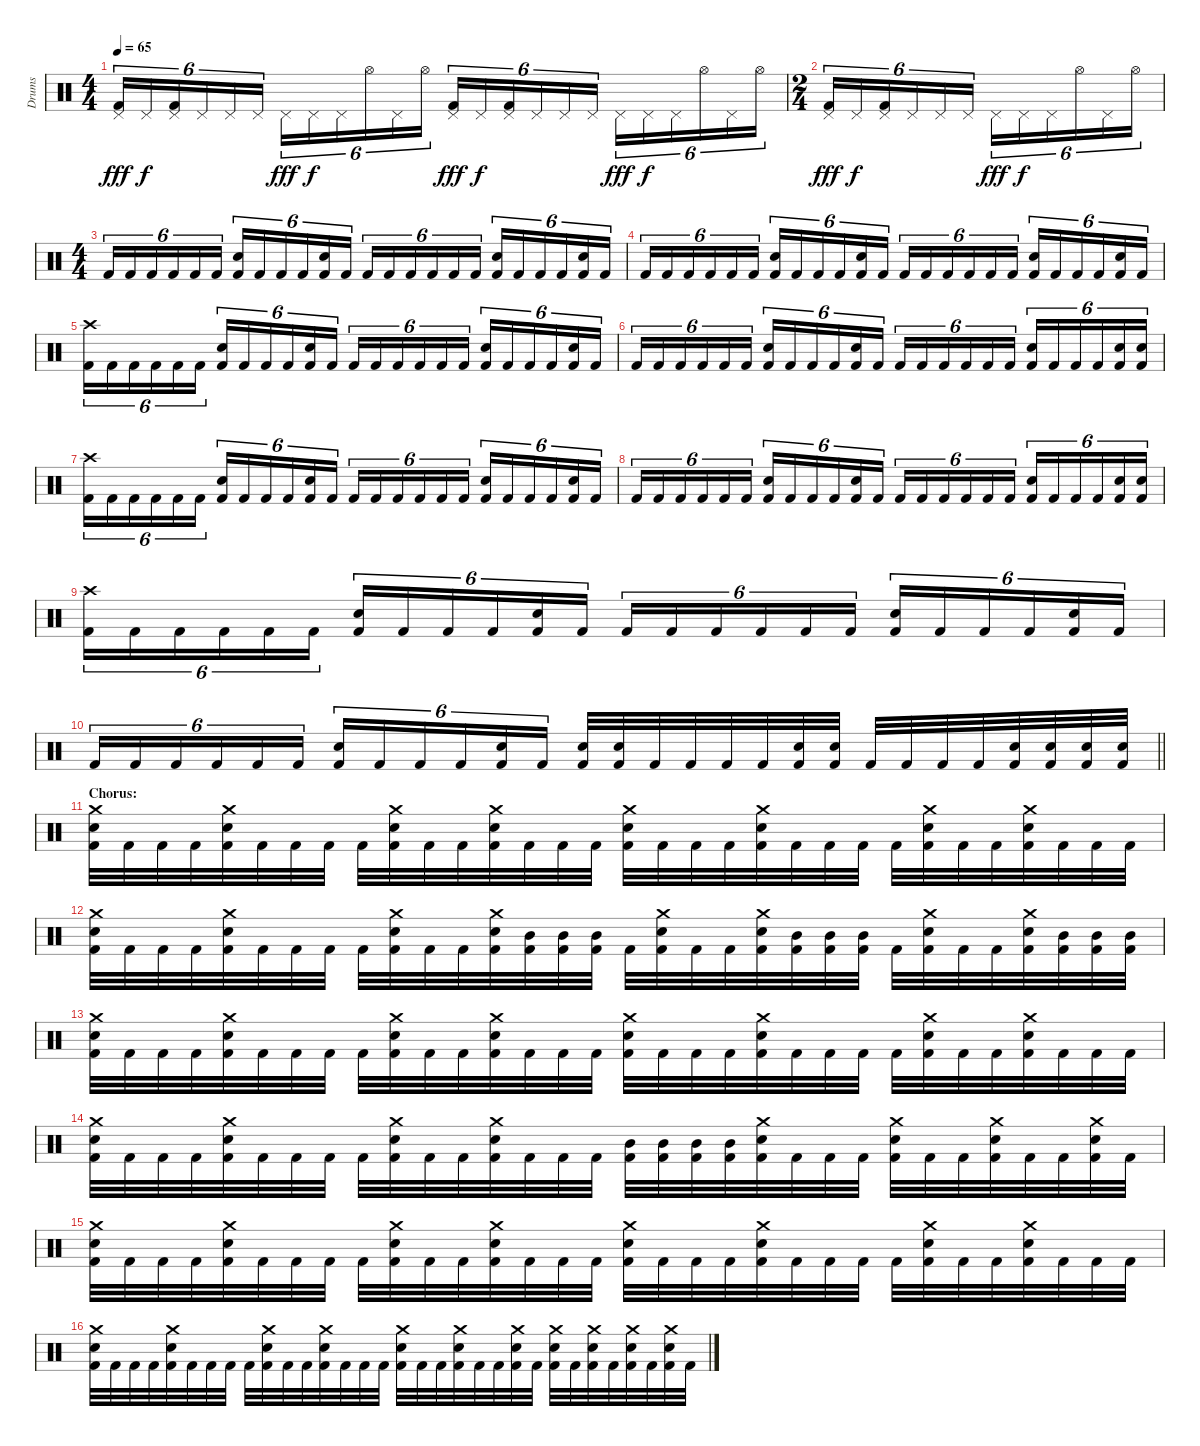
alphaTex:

\track ("Drums" "Drums") {instrument percussion}
\staff {score}
\articulation defaults
\ts (4 4)
\tempo 65
\clef neutral
\ks c
("Pedal Hi-Hat (hit)" "Kick (hit) 2").16{tu (6 4) dy fff} "Pedal Hi-Hat (hit)".16{tu (6 4) dy f} ("Pedal Hi-Hat (hit)" "Kick (hit) 2").16{tu (6 4)} "Pedal Hi-Hat (hit)".16{tu (6 4)} "Pedal Hi-Hat (hit)".16{tu (6 4)} "Pedal Hi-Hat (hit)".16{tu (6 4)} "Pedal Hi-Hat (hit)".16{tu (6 4) dy fff} "Pedal Hi-Hat (hit)".16{tu (6 4) dy f} "Pedal Hi-Hat (hit)".16{tu (6 4)} "Hi-Hat (open)".16{tu (6 4)} "Pedal Hi-Hat (hit)".16{tu (6 4)} "Hi-Hat (open)".16{tu (6 4)} ("Pedal Hi-Hat (hit)" "Kick (hit) 2").16{tu (6 4) dy fff} "Pedal Hi-Hat (hit)".16{tu (6 4) dy f} ("Pedal Hi-Hat (hit)" "Kick (hit) 2").16{tu (6 4)} "Pedal Hi-Hat (hit)".16{tu (6 4)} "Pedal Hi-Hat (hit)".16{tu (6 4)} "Pedal Hi-Hat (hit)".16{tu (6 4)} "Pedal Hi-Hat (hit)".16{tu (6 4) dy fff} "Pedal Hi-Hat (hit)".16{tu (6 4) dy f} "Pedal Hi-Hat (hit)".16{tu (6 4)} "Hi-Hat (open)".16{tu (6 4)} "Pedal Hi-Hat (hit)".16{tu (6 4)} "Hi-Hat (open)".16{tu (6 4)} |
\ts (2 4)
("Pedal Hi-Hat (hit)" "Kick (hit) 2").16{tu (6 4) dy fff} "Pedal Hi-Hat (hit)".16{tu (6 4) dy f} ("Pedal Hi-Hat (hit)" "Kick (hit) 2").16{tu (6 4)} "Pedal Hi-Hat (hit)".16{tu (6 4)} "Pedal Hi-Hat (hit)".16{tu (6 4)} "Pedal Hi-Hat (hit)".16{tu (6 4)} "Pedal Hi-Hat (hit)".16{tu (6 4) dy fff} "Pedal Hi-Hat (hit)".16{tu (6 4) dy f} "Pedal Hi-Hat (hit)".16{tu (6 4)} "Hi-Hat (open)".16{tu (6 4)} "Pedal Hi-Hat (hit)".16{tu (6 4)} "Hi-Hat (open)".16{tu (6 4)} |
\ts (4 4)
"Kick (hit) 2".16{tu (6 4)} "Kick (hit) 2".16{tu (6 4)} "Kick (hit) 2".16{tu (6 4)} "Kick (hit) 2".16{tu (6 4)} "Kick (hit) 2".16{tu (6 4)} "Kick (hit) 2".16{tu (6 4)} ("Snare (hit) 2" "Kick (hit) 2").16{tu (6 4)} "Kick (hit) 2".16{tu (6 4)} "Kick (hit) 2".16{tu (6 4)} "Kick (hit) 2".16{tu (6 4)} ("Snare (hit) 2" "Kick (hit) 2").16{tu (6 4)} "Kick (hit) 2".16{tu (6 4)} "Kick (hit) 2".16{tu (6 4)} "Kick (hit) 2".16{tu (6 4)} "Kick (hit) 2".16{tu (6 4)} "Kick (hit) 2".16{tu (6 4)} "Kick (hit) 2".16{tu (6 4)} "Kick (hit) 2".16{tu (6 4)} ("Snare (hit) 2" "Kick (hit) 2").16{tu (6 4)} "Kick (hit) 2".16{tu (6 4)} "Kick (hit) 2".16{tu (6 4)} "Kick (hit) 2".16{tu (6 4)} ("Snare (hit) 2" "Kick (hit) 2").16{tu (6 4)} "Kick (hit) 2".16{tu (6 4)} |
"Kick (hit) 2".16{tu (6 4)} "Kick (hit) 2".16{tu (6 4)} "Kick (hit) 2".16{tu (6 4)} "Kick (hit) 2".16{tu (6 4)} "Kick (hit) 2".16{tu (6 4)} "Kick (hit) 2".16{tu (6 4)} ("Snare (hit) 2" "Kick (hit) 2").16{tu (6 4)} "Kick (hit) 2".16{tu (6 4)} "Kick (hit) 2".16{tu (6 4)} "Kick (hit) 2".16{tu (6 4)} ("Snare (hit) 2" "Kick (hit) 2").16{tu (6 4)} "Kick (hit) 2".16{tu (6 4)} "Kick (hit) 2".16{tu (6 4)} "Kick (hit) 2".16{tu (6 4)} "Kick (hit) 2".16{tu (6 4)} "Kick (hit) 2".16{tu (6 4)} "Kick (hit) 2".16{tu (6 4)} "Kick (hit) 2".16{tu (6 4)} ("Snare (hit) 2" "Kick (hit) 2").16{tu (6 4)} "Kick (hit) 2".16{tu (6 4)} "Kick (hit) 2".16{tu (6 4)} "Kick (hit) 2".16{tu (6 4)} ("Snare (hit) 2" "Kick (hit) 2").16{tu (6 4)} "Kick (hit) 2".16{tu (6 4)} |
("Crash high (hit)" "Kick (hit) 2").16{tu (6 4)} "Kick (hit) 2".16{tu (6 4)} "Kick (hit) 2".16{tu (6 4)} "Kick (hit) 2".16{tu (6 4)} "Kick (hit) 2".16{tu (6 4)} "Kick (hit) 2".16{tu (6 4)} ("Snare (hit) 2" "Kick (hit) 2").16{tu (6 4)} "Kick (hit) 2".16{tu (6 4)} "Kick (hit) 2".16{tu (6 4)} "Kick (hit) 2".16{tu (6 4)} ("Snare (hit) 2" "Kick (hit) 2").16{tu (6 4)} "Kick (hit) 2".16{tu (6 4)} "Kick (hit) 2".16{tu (6 4)} "Kick (hit) 2".16{tu (6 4)} "Kick (hit) 2".16{tu (6 4)} "Kick (hit) 2".16{tu (6 4)} "Kick (hit) 2".16{tu (6 4)} "Kick (hit) 2".16{tu (6 4)} ("Snare (hit) 2" "Kick (hit) 2").16{tu (6 4)} "Kick (hit) 2".16{tu (6 4)} "Kick (hit) 2".16{tu (6 4)} "Kick (hit) 2".16{tu (6 4)} ("Snare (hit) 2" "Kick (hit) 2").16{tu (6 4)} "Kick (hit) 2".16{tu (6 4)} |
"Kick (hit) 2".16{tu (6 4)} "Kick (hit) 2".16{tu (6 4)} "Kick (hit) 2".16{tu (6 4)} "Kick (hit) 2".16{tu (6 4)} "Kick (hit) 2".16{tu (6 4)} "Kick (hit) 2".16{tu (6 4)} ("Snare (hit) 2" "Kick (hit) 2").16{tu (6 4)} "Kick (hit) 2".16{tu (6 4)} "Kick (hit) 2".16{tu (6 4)} "Kick (hit) 2".16{tu (6 4)} ("Snare (hit) 2" "Kick (hit) 2").16{tu (6 4)} "Kick (hit) 2".16{tu (6 4)} "Kick (hit) 2".16{tu (6 4)} "Kick (hit) 2".16{tu (6 4)} "Kick (hit) 2".16{tu (6 4)} "Kick (hit) 2".16{tu (6 4)} "Kick (hit) 2".16{tu (6 4)} "Kick (hit) 2".16{tu (6 4)} ("Snare (hit) 2" "Kick (hit) 2").16{tu (6 4)} "Kick (hit) 2".16{tu (6 4)} "Kick (hit) 2".16{tu (6 4)} "Kick (hit) 2".16{tu (6 4)} ("Snare (hit) 2" "Kick (hit) 2").16{tu (6 4)} ("Snare (hit) 2" "Kick (hit) 2").16{tu (6 4)} |
("Crash high (hit)" "Kick (hit) 2").16{tu (6 4)} "Kick (hit) 2".16{tu (6 4)} "Kick (hit) 2".16{tu (6 4)} "Kick (hit) 2".16{tu (6 4)} "Kick (hit) 2".16{tu (6 4)} "Kick (hit) 2".16{tu (6 4)} ("Snare (hit) 2" "Kick (hit) 2").16{tu (6 4)} "Kick (hit) 2".16{tu (6 4)} "Kick (hit) 2".16{tu (6 4)} "Kick (hit) 2".16{tu (6 4)} ("Snare (hit) 2" "Kick (hit) 2").16{tu (6 4)} "Kick (hit) 2".16{tu (6 4)} "Kick (hit) 2".16{tu (6 4)} "Kick (hit) 2".16{tu (6 4)} "Kick (hit) 2".16{tu (6 4)} "Kick (hit) 2".16{tu (6 4)} "Kick (hit) 2".16{tu (6 4)} "Kick (hit) 2".16{tu (6 4)} ("Snare (hit) 2" "Kick (hit) 2").16{tu (6 4)} "Kick (hit) 2".16{tu (6 4)} "Kick (hit) 2".16{tu (6 4)} "Kick (hit) 2".16{tu (6 4)} ("Snare (hit) 2" "Kick (hit) 2").16{tu (6 4)} "Kick (hit) 2".16{tu (6 4)} |
"Kick (hit) 2".16{tu (6 4)} "Kick (hit) 2".16{tu (6 4)} "Kick (hit) 2".16{tu (6 4)} "Kick (hit) 2".16{tu (6 4)} "Kick (hit) 2".16{tu (6 4)} "Kick (hit) 2".16{tu (6 4)} ("Snare (hit) 2" "Kick (hit) 2").16{tu (6 4)} "Kick (hit) 2".16{tu (6 4)} "Kick (hit) 2".16{tu (6 4)} "Kick (hit) 2".16{tu (6 4)} ("Snare (hit) 2" "Kick (hit) 2").16{tu (6 4)} "Kick (hit) 2".16{tu (6 4)} "Kick (hit) 2".16{tu (6 4)} "Kick (hit) 2".16{tu (6 4)} "Kick (hit) 2".16{tu (6 4)} "Kick (hit) 2".16{tu (6 4)} "Kick (hit) 2".16{tu (6 4)} "Kick (hit) 2".16{tu (6 4)} ("Snare (hit) 2" "Kick (hit) 2").16{tu (6 4)} "Kick (hit) 2".16{tu (6 4)} "Kick (hit) 2".16{tu (6 4)} "Kick (hit) 2".16{tu (6 4)} ("Snare (hit) 2" "Kick (hit) 2").16{tu (6 4)} ("Snare (hit) 2" "Kick (hit) 2").16{tu (6 4)} |
("Crash high (hit)" "Kick (hit) 2").16{tu (6 4)} "Kick (hit) 2".16{tu (6 4)} "Kick (hit) 2".16{tu (6 4)} "Kick (hit) 2".16{tu (6 4)} "Kick (hit) 2".16{tu (6 4)} "Kick (hit) 2".16{tu (6 4)} ("Snare (hit) 2" "Kick (hit) 2").16{tu (6 4)} "Kick (hit) 2".16{tu (6 4)} "Kick (hit) 2".16{tu (6 4)} "Kick (hit) 2".16{tu (6 4)} ("Snare (hit) 2" "Kick (hit) 2").16{tu (6 4)} "Kick (hit) 2".16{tu (6 4)} "Kick (hit) 2".16{tu (6 4)} "Kick (hit) 2".16{tu (6 4)} "Kick (hit) 2".16{tu (6 4)} "Kick (hit) 2".16{tu (6 4)} "Kick (hit) 2".16{tu (6 4)} "Kick (hit) 2".16{tu (6 4)} ("Snare (hit) 2" "Kick (hit) 2").16{tu (6 4)} "Kick (hit) 2".16{tu (6 4)} "Kick (hit) 2".16{tu (6 4)} "Kick (hit) 2".16{tu (6 4)} ("Snare (hit) 2" "Kick (hit) 2").16{tu (6 4)} "Kick (hit) 2".16{tu (6 4)} |
\barLineRight lightlight "Kick (hit) 2".16{tu (6 4)} "Kick (hit) 2".16{tu (6 4)} "Kick (hit) 2".16{tu (6 4)} "Kick (hit) 2".16{tu (6 4)} "Kick (hit) 2".16{tu (6 4)} "Kick (hit) 2".16{tu (6 4)}
("Snare (hit) 2" "Kick (hit) 2").16{tu (6 4)} "Kick (hit) 2".16{tu (6 4)} "Kick (hit) 2".16{tu (6 4)} "Kick (hit) 2".16{tu (6 4)} ("Snare (hit) 2" "Kick (hit) 2").16{tu (6 4)} "Kick (hit) 2".16{tu (6 4)} ("Snare (hit) 2" "Kick (hit) 2").32 ("Snare (hit) 2" "Kick (hit) 2").32 "Kick (hit) 2".32 "Kick (hit) 2".32 "Kick (hit) 2".32 "Kick (hit) 2".32 ("Snare (hit) 2" "Kick (hit) 2").32 ("Snare (hit) 2" "Kick (hit) 2").32 "Kick (hit) 2".32 "Kick (hit) 2".32 "Kick (hit) 2".32 "Kick (hit) 2".32 ("Snare (hit) 2" "Kick (hit) 2").32 ("Snare (hit) 2" "Kick (hit) 2").32 ("Snare (hit) 2" "Kick (hit) 2").32 ("Snare (hit) 2" "Kick (hit) 2").32 |
\section ("" "Chorus:")
("Crash medium (hit)" "Snare (hit) 2" "Kick (hit) 2").32 "Kick (hit) 2".32 "Kick (hit) 2".32 "Kick (hit) 2".32 ("Crash medium (hit)" "Snare (hit) 2" "Kick (hit) 2").32 "Kick (hit) 2".32 "Kick (hit) 2".32 "Kick (hit) 2".32 "Kick (hit) 2".32 ("Crash medium (hit)" "Snare (hit) 2" "Kick (hit) 2").32 "Kick (hit) 2".32 "Kick (hit) 2".32 ("Crash medium (hit)" "Snare (hit) 2" "Kick (hit) 2").32 "Kick (hit) 2".32 "Kick (hit) 2".32 "Kick (hit) 2".32 ("Crash medium (hit)" "Snare (hit) 2" "Kick (hit) 2").32 "Kick (hit) 2".32 "Kick (hit) 2".32 "Kick (hit) 2".32 ("Crash medium (hit)" "Snare (hit) 2" "Kick (hit) 2").32 "Kick (hit) 2".32 "Kick (hit) 2".32 "Kick (hit) 2".32 "Kick (hit) 2".32 ("Crash medium (hit)" "Snare (hit) 2" "Kick (hit) 2").32 "Kick (hit) 2".32 "Kick (hit) 2".32 ("Crash medium (hit)" "Snare (hit) 2" "Kick (hit) 2").32 "Kick (hit) 2".32 "Kick (hit) 2".32 "Kick (hit) 2".32 |
("Crash medium (hit)" "Snare (hit) 2" "Kick (hit) 2").32 "Kick (hit) 2".32 "Kick (hit) 2".32 "Kick (hit) 2".32 ("Crash medium (hit)" "Snare (hit) 2" "Kick (hit) 2").32 "Kick (hit) 2".32 "Kick (hit) 2".32 "Kick (hit) 2".32 "Kick (hit) 2".32 ("Crash medium (hit)" "Snare (hit) 2" "Kick (hit) 2").32 "Kick (hit) 2".32 "Kick (hit) 2".32 ("Crash medium (hit)" "Snare (hit) 2" "Kick (hit) 2").32 ("Mid Tom (hit)" "Kick (hit) 2").32 ("Mid Tom (hit)" "Kick (hit) 2").32 ("Mid Tom (hit)" "Kick (hit) 2").32 "Kick (hit) 2".32 ("Crash medium (hit)" "Snare (hit) 2" "Kick (hit) 2").32 "Kick (hit) 2".32 "Kick (hit) 2".32 ("Crash medium (hit)" "Snare (hit) 2" "Kick (hit) 2").32 ("Mid Tom (hit)" "Kick (hit) 2").32 ("Mid Tom (hit)" "Kick (hit) 2").32 ("Mid Tom (hit)" "Kick (hit) 2").32 "Kick (hit) 2".32 ("Crash medium (hit)" "Snare (hit) 2" "Kick (hit) 2").32 "Kick (hit) 2".32 "Kick (hit) 2".32 ("Crash medium (hit)" "Snare (hit) 2" "Kick (hit) 2").32 ("Mid Tom (hit)" "Kick (hit) 2").32 ("Mid Tom (hit)" "Kick (hit) 2").32 ("Mid Tom (hit)" "Kick (hit) 2").32 |
("Crash medium (hit)" "Snare (hit) 2" "Kick (hit) 2").32 "Kick (hit) 2".32 "Kick (hit) 2".32 "Kick (hit) 2".32 ("Crash medium (hit)" "Snare (hit) 2" "Kick (hit) 2").32 "Kick (hit) 2".32 "Kick (hit) 2".32 "Kick (hit) 2".32 "Kick (hit) 2".32 ("Crash medium (hit)" "Snare (hit) 2" "Kick (hit) 2").32 "Kick (hit) 2".32 "Kick (hit) 2".32 ("Crash medium (hit)" "Snare (hit) 2" "Kick (hit) 2").32 "Kick (hit) 2".32 "Kick (hit) 2".32 "Kick (hit) 2".32 ("Crash medium (hit)" "Snare (hit) 2" "Kick (hit) 2").32 "Kick (hit) 2".32 "Kick (hit) 2".32 "Kick (hit) 2".32 ("Crash medium (hit)" "Snare (hit) 2" "Kick (hit) 2").32 "Kick (hit) 2".32 "Kick (hit) 2".32 "Kick (hit) 2".32 "Kick (hit) 2".32 ("Crash medium (hit)" "Snare (hit) 2" "Kick (hit) 2").32 "Kick (hit) 2".32 "Kick (hit) 2".32 ("Crash medium (hit)" "Snare (hit) 2" "Kick (hit) 2").32 "Kick (hit) 2".32 "Kick (hit) 2".32 "Kick (hit) 2".32 |
("Crash medium (hit)" "Snare (hit) 2" "Kick (hit) 2").32 "Kick (hit) 2".32 "Kick (hit) 2".32 "Kick (hit) 2".32 ("Crash medium (hit)" "Snare (hit) 2" "Kick (hit) 2").32 "Kick (hit) 2".32 "Kick (hit) 2".32 "Kick (hit) 2".32 "Kick (hit) 2".32 ("Crash medium (hit)" "Snare (hit) 2" "Kick (hit) 2").32 "Kick (hit) 2".32 "Kick (hit) 2".32 ("Crash medium (hit)" "Snare (hit) 2" "Kick (hit) 2").32 "Kick (hit) 2".32 "Kick (hit) 2".32 "Kick (hit) 2".32 ("Mid Tom (hit)" "Kick (hit) 2").32 ("Mid Tom (hit)" "Kick (hit) 2").32 ("Mid Tom (hit)" "Kick (hit) 2").32 ("Mid Tom (hit)" "Kick (hit) 2").32 ("Crash medium (hit)" "Snare (hit) 2" "Kick (hit) 2").32 "Kick (hit) 2".32 "Kick (hit) 2".32 "Kick (hit) 2".32 ("Crash medium (hit)" "Snare (hit) 2" "Kick (hit) 2").32 "Kick (hit) 2".32 "Kick (hit) 2".32 ("Crash medium (hit)" "Snare (hit) 2" "Kick (hit) 2").32 "Kick (hit) 2".32 "Kick (hit) 2".32 ("Crash medium (hit)" "Snare (hit) 2" "Kick (hit) 2").32 "Kick (hit) 2".32 |
("Crash medium (hit)" "Snare (hit) 2" "Kick (hit) 2").32 "Kick (hit) 2".32 "Kick (hit) 2".32 "Kick (hit) 2".32 ("Crash medium (hit)" "Snare (hit) 2" "Kick (hit) 2").32 "Kick (hit) 2".32 "Kick (hit) 2".32 "Kick (hit) 2".32 "Kick (hit) 2".32 ("Crash medium (hit)" "Snare (hit) 2" "Kick (hit) 2").32 "Kick (hit) 2".32 "Kick (hit) 2".32 ("Crash medium (hit)" "Snare (hit) 2" "Kick (hit) 2").32 "Kick (hit) 2".32 "Kick (hit) 2".32 "Kick (hit) 2".32 ("Crash medium (hit)" "Snare (hit) 2" "Kick (hit) 2").32 "Kick (hit) 2".32 "Kick (hit) 2".32 "Kick (hit) 2".32 ("Crash medium (hit)" "Snare (hit) 2" "Kick (hit) 2").32 "Kick (hit) 2".32 "Kick (hit) 2".32 "Kick (hit) 2".32 "Kick (hit) 2".32 ("Crash medium (hit)" "Snare (hit) 2" "Kick (hit) 2").32 "Kick (hit) 2".32 "Kick (hit) 2".32 ("Crash medium (hit)" "Snare (hit) 2" "Kick (hit) 2").32 "Kick (hit) 2".32 "Kick (hit) 2".32 "Kick (hit) 2".32 |
("Crash medium (hit)" "Snare (hit) 2" "Kick (hit) 2").32 "Kick (hit) 2".32 "Kick (hit) 2".32 "Kick (hit) 2".32 ("Crash medium (hit)" "Snare (hit) 2" "Kick (hit) 2").32 "Kick (hit) 2".32 "Kick (hit) 2".32 "Kick (hit) 2".32 "Kick (hit) 2".32 ("Crash medium (hit)" "Snare (hit) 2" "Kick (hit) 2").32 "Kick (hit) 2".32 "Kick (hit) 2".32 ("Crash medium (hit)" "Snare (hit) 2" "Kick (hit) 2").32 "Kick (hit) 2".32 "Kick (hit) 2".32 "Kick (hit) 2".32 ("Crash medium (hit)" "Snare (hit) 2" "Kick (hit) 2").32 "Kick (hit) 2".32 "Kick (hit) 2".32 ("Crash medium (hit)" "Snare (hit) 2" "Kick (hit) 2").32 "Kick (hit) 2".32 "Kick (hit) 2".32 ("Crash medium (hit)" "Snare (hit) 2" "Kick (hit) 2").32 "Kick (hit) 2".32 ("Crash medium (hit)" "Snare (hit) 2" "Kick (hit) 2").32 "Kick (hit) 2".32 ("Crash medium (hit)" "Snare (hit) 2" "Kick (hit) 2").32 "Kick (hit) 2".32 ("Crash medium (hit)" "Snare (hit) 2" "Kick (hit) 2").32 "Kick (hit) 2".32 ("Crash medium (hit)" "Snare (hit) 2" "Kick (hit) 2").32 "Kick (hit) 2".32
